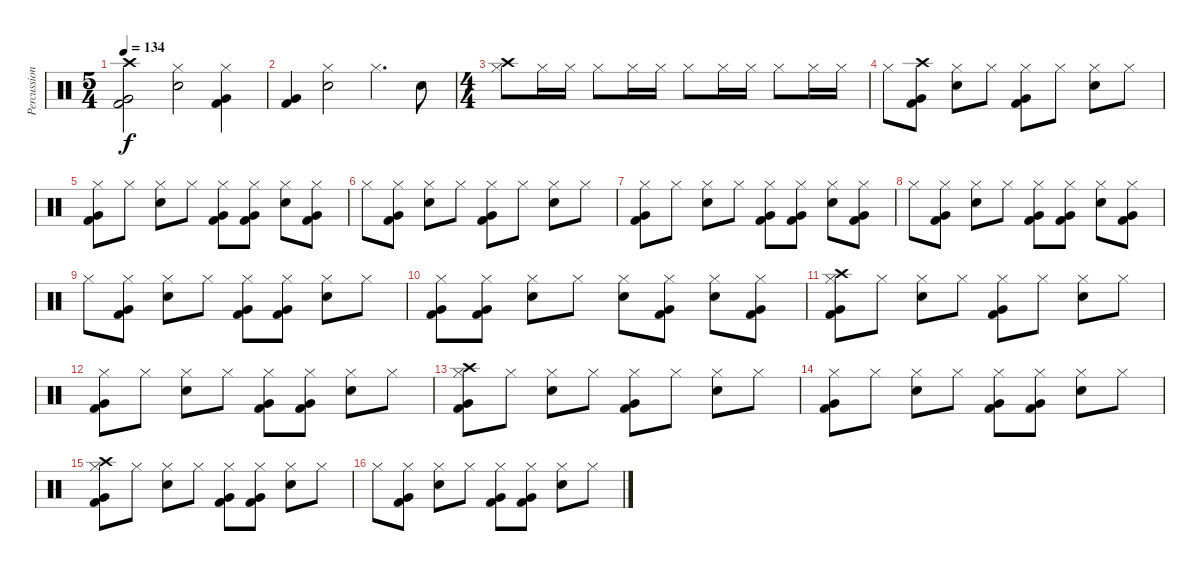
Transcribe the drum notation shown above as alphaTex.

\track ("Percussion" "Percussion") {instrument percussion}
\staff {score}
\articulation defaults
\ts (5 4)
\tempo 134
\clef neutral
\ks c
("Crash high (hit)" "Very Low Tom (hit)" "Kick (hit) 2").2{dy f} ("Hi-Hat (closed)" "Electric Snare (hit)").2 ("Hi-Hat (closed)" "Very Low Tom (hit)" "Kick (hit) 2").4 |
("Very Low Tom (hit)" "Kick (hit) 2").4 ("Hi-Hat (closed)" "Electric Snare (hit)").2 "Hi-Hat (closed)".4{d} "Electric Snare (hit)".8 |
\ts (4 4)
("Crash high (hit)" "Hi-Hat (closed)").8 "Hi-Hat (closed)".16 "Hi-Hat (closed)".16 "Hi-Hat (closed)".8 "Hi-Hat (closed)".16 "Hi-Hat (closed)".16 "Hi-Hat (closed)".8 "Hi-Hat (closed)".16 "Hi-Hat (closed)".16 "Hi-Hat (closed)".8 "Hi-Hat (closed)".16 "Hi-Hat (closed)".16 |
"Hi-Hat (closed)".8 ("Crash high (hit)" "Very Low Tom (hit)" "Kick (hit) 2").8 ("Hi-Hat (closed)" "Electric Snare (hit)").8 "Hi-Hat (closed)".8 ("Hi-Hat (closed)" "Very Low Tom (hit)" "Kick (hit) 2").8 "Hi-Hat (closed)".8 ("Hi-Hat (closed)" "Electric Snare (hit)").8 "Hi-Hat (closed)".8 |
("Hi-Hat (closed)" "Very Low Tom (hit)" "Kick (hit) 2").8 "Hi-Hat (closed)".8 ("Hi-Hat (closed)" "Electric Snare (hit)").8 "Hi-Hat (closed)".8 ("Hi-Hat (closed)" "Very Low Tom (hit)" "Kick (hit) 2").8 ("Hi-Hat (closed)" "Very Low Tom (hit)" "Kick (hit) 2").8 ("Hi-Hat (closed)" "Electric Snare (hit)").8 ("Hi-Hat (closed)" "Very Low Tom (hit)" "Kick (hit) 2").8 |
"Hi-Hat (closed)".8 ("Hi-Hat (closed)" "Very Low Tom (hit)" "Kick (hit) 2").8 ("Hi-Hat (closed)" "Electric Snare (hit)").8 "Hi-Hat (closed)".8 ("Hi-Hat (closed)" "Very Low Tom (hit)" "Kick (hit) 2").8 "Hi-Hat (closed)".8 ("Hi-Hat (closed)" "Electric Snare (hit)").8 "Hi-Hat (closed)".8 |
("Hi-Hat (closed)" "Very Low Tom (hit)" "Kick (hit) 2").8 "Hi-Hat (closed)".8 ("Hi-Hat (closed)" "Electric Snare (hit)").8 "Hi-Hat (closed)".8 ("Hi-Hat (closed)" "Very Low Tom (hit)" "Kick (hit) 2").8 ("Hi-Hat (closed)" "Very Low Tom (hit)" "Kick (hit) 2").8 ("Hi-Hat (closed)" "Electric Snare (hit)").8 ("Hi-Hat (closed)" "Very Low Tom (hit)" "Kick (hit) 2").8 |
"Hi-Hat (closed)".8 ("Hi-Hat (closed)" "Very Low Tom (hit)" "Kick (hit) 2").8 ("Hi-Hat (closed)" "Electric Snare (hit)").8 "Hi-Hat (closed)".8 ("Hi-Hat (closed)" "Very Low Tom (hit)" "Kick (hit) 2").8 ("Hi-Hat (closed)" "Very Low Tom (hit)" "Kick (hit) 2").8 ("Hi-Hat (closed)" "Electric Snare (hit)").8 ("Hi-Hat (closed)" "Very Low Tom (hit)" "Kick (hit) 2").8 |
"Hi-Hat (closed)".8 ("Hi-Hat (closed)" "Very Low Tom (hit)" "Kick (hit) 2").8 ("Hi-Hat (closed)" "Electric Snare (hit)").8 "Hi-Hat (closed)".8 ("Hi-Hat (closed)" "Very Low Tom (hit)" "Kick (hit) 2").8 ("Hi-Hat (closed)" "Very Low Tom (hit)" "Kick (hit) 2").8 ("Hi-Hat (closed)" "Electric Snare (hit)").8 "Hi-Hat (closed)".8 |
("Hi-Hat (closed)" "Very Low Tom (hit)" "Kick (hit) 2").8 ("Hi-Hat (closed)" "Very Low Tom (hit)" "Kick (hit) 2").8 ("Hi-Hat (closed)" "Electric Snare (hit)").8 "Hi-Hat (closed)".8 ("Hi-Hat (closed)" "Electric Snare (hit)").8 ("Hi-Hat (closed)" "Very Low Tom (hit)" "Kick (hit) 2").8 ("Hi-Hat (closed)" "Electric Snare (hit)").8 ("Hi-Hat (closed)" "Very Low Tom (hit)" "Kick (hit) 2").8 |
("Crash high (hit)" "Hi-Hat (closed)" "Very Low Tom (hit)" "Kick (hit) 2").8 "Hi-Hat (closed)".8 ("Hi-Hat (closed)" "Electric Snare (hit)").8 "Hi-Hat (closed)".8 ("Hi-Hat (closed)" "Very Low Tom (hit)" "Kick (hit) 2").8 "Hi-Hat (closed)".8 ("Hi-Hat (closed)" "Electric Snare (hit)").8 "Hi-Hat (closed)".8 |
("Hi-Hat (closed)" "Very Low Tom (hit)" "Kick (hit) 2").8 "Hi-Hat (closed)".8 ("Hi-Hat (closed)" "Electric Snare (hit)").8 "Hi-Hat (closed)".8 ("Hi-Hat (closed)" "Very Low Tom (hit)" "Kick (hit) 2").8 ("Hi-Hat (closed)" "Very Low Tom (hit)" "Kick (hit) 2").8 ("Hi-Hat (closed)" "Electric Snare (hit)").8 "Hi-Hat (closed)".8 |
("Crash high (hit)" "Hi-Hat (closed)" "Very Low Tom (hit)" "Kick (hit) 2").8 "Hi-Hat (closed)".8 ("Hi-Hat (closed)" "Electric Snare (hit)").8 "Hi-Hat (closed)".8 ("Hi-Hat (closed)" "Very Low Tom (hit)" "Kick (hit) 2").8 "Hi-Hat (closed)".8 ("Hi-Hat (closed)" "Electric Snare (hit)").8 "Hi-Hat (closed)".8 |
("Hi-Hat (closed)" "Very Low Tom (hit)" "Kick (hit) 2").8 "Hi-Hat (closed)".8 ("Hi-Hat (closed)" "Electric Snare (hit)").8 "Hi-Hat (closed)".8 ("Hi-Hat (closed)" "Very Low Tom (hit)" "Kick (hit) 2").8 ("Hi-Hat (closed)" "Very Low Tom (hit)" "Kick (hit) 2").8 ("Hi-Hat (closed)" "Electric Snare (hit)").8 "Hi-Hat (closed)".8 |
("Crash high (hit)" "Hi-Hat (closed)" "Very Low Tom (hit)" "Kick (hit) 2").8 "Hi-Hat (closed)".8 ("Hi-Hat (closed)" "Electric Snare (hit)").8 "Hi-Hat (closed)".8 ("Hi-Hat (closed)" "Very Low Tom (hit)" "Kick (hit) 2").8 ("Hi-Hat (closed)" "Very Low Tom (hit)" "Kick (hit) 2").8 ("Hi-Hat (closed)" "Electric Snare (hit)").8 "Hi-Hat (closed)".8 |
"Hi-Hat (closed)".8 ("Hi-Hat (closed)" "Very Low Tom (hit)" "Kick (hit) 2").8 ("Hi-Hat (closed)" "Electric Snare (hit)").8 "Hi-Hat (closed)".8 ("Hi-Hat (closed)" "Very Low Tom (hit)" "Kick (hit) 2").8 ("Hi-Hat (closed)" "Very Low Tom (hit)" "Kick (hit) 2").8 ("Hi-Hat (closed)" "Electric Snare (hit)").8 "Hi-Hat (closed)".8
